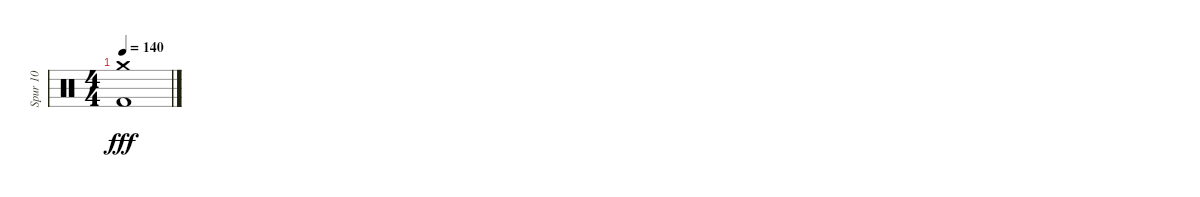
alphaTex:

\track ("Spur 10" "Spur 10") {instrument percussion}
\staff {score}
\articulation defaults
\ts (4 4)
\tempo 140
\clef neutral
\ks c
("Kick (hit) 2" "Crash medium (hit)").1{dy fff}
